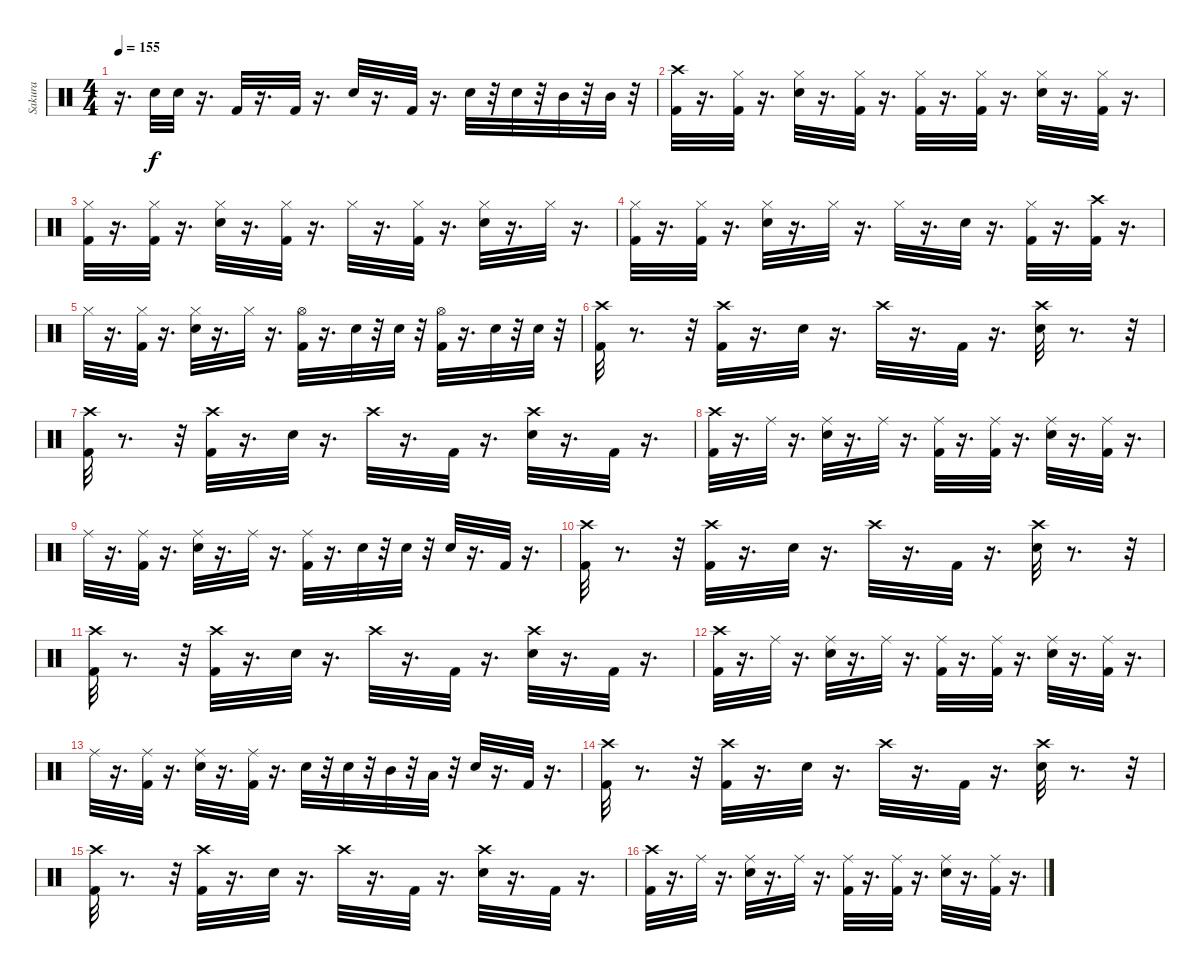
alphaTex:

\track ("Sakura" "Sakura") {instrument percussion}
\staff {score}
\articulation defaults
\ts (4 4)
\tempo 155
\clef neutral
\ks c
r.16{d dy fff} "Snare (hit) 2".32{dy f} "Snare (hit) 2".32 r.16{d} "Kick (hit) 2".32 r.16{d} "Kick (hit) 2".32 r.16{d} "Snare (hit) 2".32 r.16{d} "Kick (hit) 2".32 r.16{d} "Snare (hit) 2".32 r.32 "Snare (hit) 2".32 r.32 "Mid Tom (hit)".32 r.32 "Mid Tom (hit)".32 r.32 |
("Crash high (hit)" "Kick (hit) 2").32 r.16{d} ("Hi-Hat (closed)" "Kick (hit) 2").32 r.16{d} ("Hi-Hat (closed)" "Snare (hit) 2").32 r.16{d} ("Hi-Hat (closed)" "Kick (hit) 2").32 r.16{d} ("Kick (hit) 2" "Hi-Hat (closed)").32 r.16{d} ("Kick (hit) 2" "Hi-Hat (closed)").32 r.16{d} ("Hi-Hat (closed)" "Snare (hit) 2").32 r.16{d} ("Kick (hit) 2" "Hi-Hat (closed)").32 r.16{d} |
("Kick (hit) 2" "Hi-Hat (closed)").32 r.16{d} ("Kick (hit) 2" "Hi-Hat (closed)").32 r.16{d} ("Hi-Hat (closed)" "Snare (hit) 2").32 r.16{d} ("Kick (hit) 2" "Hi-Hat (closed)").32 r.16{d} "Hi-Hat (closed)".32 r.16{d} ("Hi-Hat (closed)" "Kick (hit) 2").32 r.16{d} ("Hi-Hat (closed)" "Snare (hit) 2").32 r.16{d} "Hi-Hat (closed)".32 r.16{d} |
("Hi-Hat (closed)" "Kick (hit) 2").32 r.16{d} ("Hi-Hat (closed)" "Kick (hit) 2").32 r.16{d} ("Hi-Hat (closed)" "Snare (hit) 2").32 r.16{d} "Hi-Hat (closed)".32 r.16{d} "Hi-Hat (closed)".32 r.16{d} "Snare (hit) 2".32 r.16{d} ("Hi-Hat (closed)" "Kick (hit) 2").32 r.16{d} ("Crash high (hit)" "Kick (hit) 2").32 r.16{d} |
"Hi-Hat (closed)".32 r.16{d} ("Hi-Hat (closed)" "Kick (hit) 2").32 r.16{d} ("Hi-Hat (closed)" "Snare (hit) 2").32 r.16{d} "Hi-Hat (closed)".32 r.16{d} ("Hi-Hat (open)" "Kick (hit) 2").32 r.16{d} "Snare (hit) 2".32 r.32 "Snare (hit) 2".32 r.32 ("Hi-Hat (open)" "Kick (hit) 2").32 r.16{d} "Snare (hit) 2".32 r.32 "Snare (hit) 2".32 r.32 |
("Crash high (hit)" "Kick (hit) 2").32 r.8{d} r.32 ("Kick (hit) 2" "Crash high (hit)").32 r.16{d} "Snare (hit) 2".32 r.16{d} "Crash high (hit)".32 r.16{d} "Kick (hit) 2".32 r.16{d} ("Crash high (hit)" "Snare (hit) 2").32 r.8{d} r.32 |
("Crash high (hit)" "Kick (hit) 2").32 r.8{d} r.32 ("Kick (hit) 2" "Crash high (hit)").32 r.16{d} "Snare (hit) 2".32 r.16{d} "Crash high (hit)".32 r.16{d} "Kick (hit) 2".32 r.16{d} ("Crash high (hit)" "Snare (hit) 2").32 r.16{d} "Kick (hit) 2".32 r.16{d} |
("Crash high (hit)" "Kick (hit) 2").32 r.16{d} "Ride (middle)".32 r.16{d} ("Ride (middle)" "Snare (hit) 2").32 r.16{d} "Ride (middle)".32 r.16{d} ("Ride (middle)" "Kick (hit) 2").32 r.16{d} ("Ride (middle)" "Kick (hit) 2").32 r.16{d} ("Ride (middle)" "Snare (hit) 2").32 r.16{d} ("Ride (middle)" "Kick (hit) 2").32 r.16{d} |
"Ride (middle)".32 r.16{d} ("Ride (middle)" "Kick (hit) 2").32 r.16{d} ("Ride (middle)" "Snare (hit) 2").32 r.16{d} "Ride (middle)".32 r.16{d} ("Ride (middle)" "Kick (hit) 2").32 r.16{d} "Snare (hit) 2".32 r.32 "Snare (hit) 2".32 r.32 "Snare (hit) 2".32 r.16{d} "Kick (hit) 2".32 r.16{d} |
("Crash high (hit)" "Kick (hit) 2").32 r.8{d} r.32 ("Kick (hit) 2" "Crash high (hit)").32 r.16{d} "Snare (hit) 2".32 r.16{d} "Crash high (hit)".32 r.16{d} "Kick (hit) 2".32 r.16{d} ("Crash high (hit)" "Snare (hit) 2").32 r.8{d} r.32 |
("Crash high (hit)" "Kick (hit) 2").32 r.8{d} r.32 ("Kick (hit) 2" "Crash high (hit)").32 r.16{d} "Snare (hit) 2".32 r.16{d} "Crash high (hit)".32 r.16{d} "Kick (hit) 2".32 r.16{d} ("Crash high (hit)" "Snare (hit) 2").32 r.16{d} "Kick (hit) 2".32 r.16{d} |
("Crash high (hit)" "Kick (hit) 2").32 r.16{d} "Ride (middle)".32 r.16{d} ("Ride (middle)" "Snare (hit) 2").32 r.16{d} "Ride (middle)".32 r.16{d} ("Ride (middle)" "Kick (hit) 2").32 r.16{d} ("Ride (middle)" "Kick (hit) 2").32 r.16{d} ("Ride (middle)" "Snare (hit) 2").32 r.16{d} ("Ride (middle)" "Kick (hit) 2").32 r.16{d} |
"Ride (middle)".32 r.16{d} ("Ride (middle)" "Kick (hit) 2").32 r.16{d} ("Ride (middle)" "Snare (hit) 2").32 r.16{d} ("Ride (middle)" "Kick (hit) 2").32 r.16{d} "Snare (hit) 2".32 r.32 "Snare (hit) 2".32 r.32 "Mid Tom (hit)".32 r.32 "Low Tom (hit)".32 r.32 "Snare (hit) 2".32 r.16{d} "Kick (hit) 2".32 r.16{d} |
("Crash high (hit)" "Kick (hit) 2").32 r.8{d} r.32 ("Kick (hit) 2" "Crash high (hit)").32 r.16{d} "Snare (hit) 2".32 r.16{d} "Crash high (hit)".32 r.16{d} "Kick (hit) 2".32 r.16{d} ("Crash high (hit)" "Snare (hit) 2").32 r.8{d} r.32 |
("Crash high (hit)" "Kick (hit) 2").32 r.8{d} r.32 ("Kick (hit) 2" "Crash high (hit)").32 r.16{d} "Snare (hit) 2".32 r.16{d} "Crash high (hit)".32 r.16{d} "Kick (hit) 2".32 r.16{d} ("Crash high (hit)" "Snare (hit) 2").32 r.16{d} "Kick (hit) 2".32 r.16{d} |
("Crash high (hit)" "Kick (hit) 2").32 r.16{d} "Ride (middle)".32 r.16{d} ("Ride (middle)" "Snare (hit) 2").32 r.16{d} "Ride (middle)".32 r.16{d} ("Ride (middle)" "Kick (hit) 2").32 r.16{d} ("Ride (middle)" "Kick (hit) 2").32 r.16{d} ("Ride (middle)" "Snare (hit) 2").32 r.16{d} ("Ride (middle)" "Kick (hit) 2").32 r.16{d}
